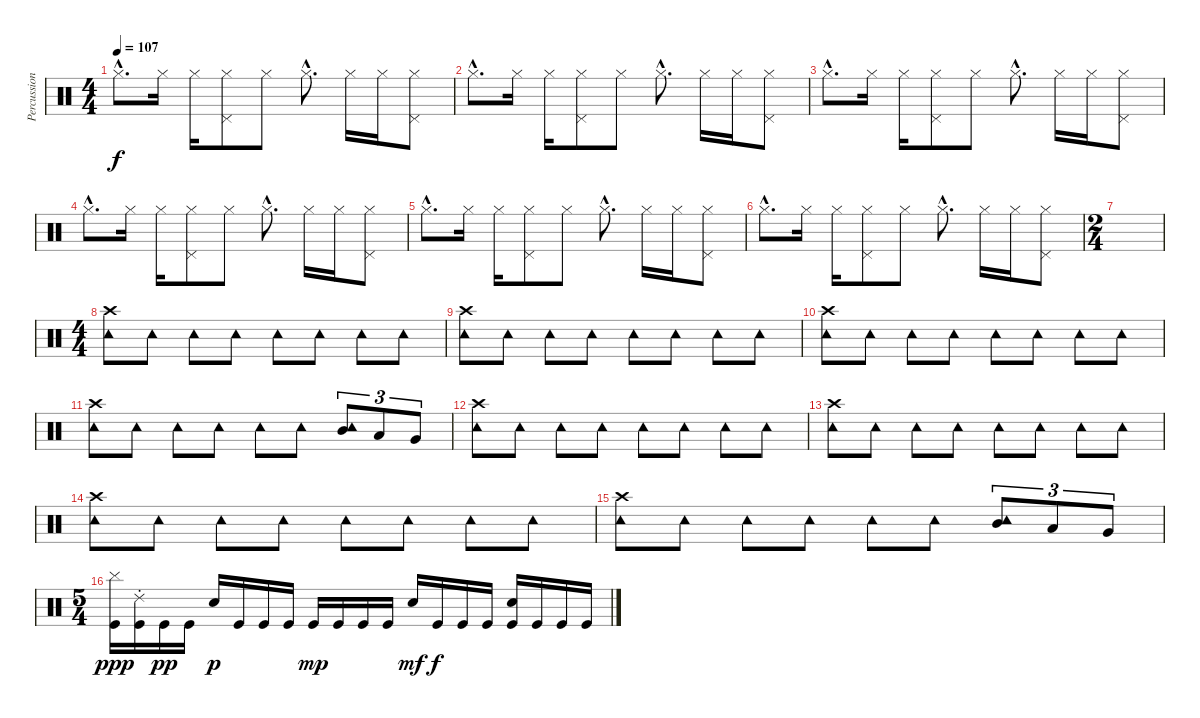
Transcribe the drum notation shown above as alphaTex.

\track ("Percussions" "Percussion") {instrument percussion}
\staff {score}
\articulation defaults
\ts (4 4)
\tempo 107
\clef neutral
\ks c "Hi-Hat (closed)"{hac}.8{d dy f} "Hi-Hat (closed)".16 "Hi-Hat (closed)".16
("Hi-Hat (closed)" "Pedal Hi-Hat (hit)").8 "Hi-Hat (closed)".8 "Hi-Hat (closed)"{hac}.8{d} "Hi-Hat (closed)".16 "Hi-Hat (closed)".16 ("Hi-Hat (closed)" "Pedal Hi-Hat (hit)").8 |
"Hi-Hat (closed)"{hac}.8{d} "Hi-Hat (closed)".16 "Hi-Hat (closed)".16 ("Hi-Hat (closed)" "Pedal Hi-Hat (hit)").8 "Hi-Hat (closed)".8 "Hi-Hat (closed)"{hac}.8{d} "Hi-Hat (closed)".16 "Hi-Hat (closed)".16 ("Hi-Hat (closed)" "Pedal Hi-Hat (hit)").8 |
"Hi-Hat (closed)"{hac}.8{d} "Hi-Hat (closed)".16 "Hi-Hat (closed)".16 ("Hi-Hat (closed)" "Pedal Hi-Hat (hit)").8 "Hi-Hat (closed)".8 "Hi-Hat (closed)"{hac}.8{d} "Hi-Hat (closed)".16 "Hi-Hat (closed)".16 ("Hi-Hat (closed)" "Pedal Hi-Hat (hit)").8 |
"Hi-Hat (closed)"{hac}.8{d} "Hi-Hat (closed)".16 "Hi-Hat (closed)".16 ("Hi-Hat (closed)" "Pedal Hi-Hat (hit)").8 "Hi-Hat (closed)".8 "Hi-Hat (closed)"{hac}.8{d} "Hi-Hat (closed)".16 "Hi-Hat (closed)".16 ("Hi-Hat (closed)" "Pedal Hi-Hat (hit)").8 |
"Hi-Hat (closed)"{hac}.8{d} "Hi-Hat (closed)".16 "Hi-Hat (closed)".16 ("Hi-Hat (closed)" "Pedal Hi-Hat (hit)").8 "Hi-Hat (closed)".8 "Hi-Hat (closed)"{hac}.8{d} "Hi-Hat (closed)".16 "Hi-Hat (closed)".16 ("Hi-Hat (closed)" "Pedal Hi-Hat (hit)").8 |
"Hi-Hat (closed)"{hac}.8{d} "Hi-Hat (closed)".16 "Hi-Hat (closed)".16 ("Hi-Hat (closed)" "Pedal Hi-Hat (hit)").8 "Hi-Hat (closed)".8 "Hi-Hat (closed)"{hac}.8{d} "Hi-Hat (closed)".16 "Hi-Hat (closed)".16 ("Hi-Hat (closed)" "Pedal Hi-Hat (hit)").8 |
\ts (2 4)
|
\ts (4 4)
("Tambourine (hit)" "Crash high (hit)").8 "Tambourine (hit)".8 "Tambourine (hit)".8 "Tambourine (hit)".8 "Tambourine (hit)".8 "Tambourine (hit)".8 "Tambourine (hit)".8 "Tambourine (hit)".8 |
("Tambourine (hit)" "Crash high (hit)").8 "Tambourine (hit)".8 "Tambourine (hit)".8 "Tambourine (hit)".8 "Tambourine (hit)".8 "Tambourine (hit)".8 "Tambourine (hit)".8 "Tambourine (hit)".8 |
("Tambourine (hit)" "Crash high (hit)").8 "Tambourine (hit)".8 "Tambourine (hit)".8 "Tambourine (hit)".8 "Tambourine (hit)".8 "Tambourine (hit)".8 "Tambourine (hit)".8 "Tambourine (hit)".8 |
("Tambourine (hit)" "Crash high (hit)").8 "Tambourine (hit)".8 "Tambourine (hit)".8 "Tambourine (hit)".8 "Tambourine (hit)".8 "Tambourine (hit)".8 ("Tambourine (hit)" "Mid Tom (hit)").8{tu (3 2)} "Low Tom (hit)".8{tu (3 2)} "Very Low Tom (hit)".8{tu (3 2)} |
("Tambourine (hit)" "Crash high (hit)").8 "Tambourine (hit)".8 "Tambourine (hit)".8 "Tambourine (hit)".8 "Tambourine (hit)".8 "Tambourine (hit)".8 "Tambourine (hit)".8 "Tambourine (hit)".8 |
("Tambourine (hit)" "Crash high (hit)").8 "Tambourine (hit)".8 "Tambourine (hit)".8 "Tambourine (hit)".8 "Tambourine (hit)".8 "Tambourine (hit)".8 "Tambourine (hit)".8 "Tambourine (hit)".8 |
("Tambourine (hit)" "Crash high (hit)").8 "Tambourine (hit)".8 "Tambourine (hit)".8 "Tambourine (hit)".8 "Tambourine (hit)".8 "Tambourine (hit)".8 "Tambourine (hit)".8 "Tambourine (hit)".8 |
("Tambourine (hit)" "Crash high (hit)").8 "Tambourine (hit)".8 "Tambourine (hit)".8 "Tambourine (hit)".8 "Tambourine (hit)".8 "Tambourine (hit)".8 ("Tambourine (hit)" "Mid Tom (hit)").8{tu (3 2)} "Low Tom (hit)".8{tu (3 2)} "Very Low Tom (hit)".8{tu (3 2)} |
\ts (5 4)
("Cymbal (hit)" "Kick (hit)").16{dy ppp} ("Ride (choke) 2" "Kick (hit)").16 "Kick (hit)".16{dy pp} "Kick (hit)".16 "Electric Snare (hit)".16{dy p} "Kick (hit)".16 "Kick (hit)".16 "Kick (hit)".16 "Kick (hit)".16{dy mp} "Kick (hit)".16 "Kick (hit)".16 "Kick (hit)".16 "Electric Snare (hit)".16{dy mf} "Kick (hit)".16{dy f} "Kick (hit)".16 "Kick (hit)".16 ("Electric Snare (hit)" "Kick (hit)").16 "Kick (hit)".16 "Kick (hit)".16 "Kick (hit)".16
